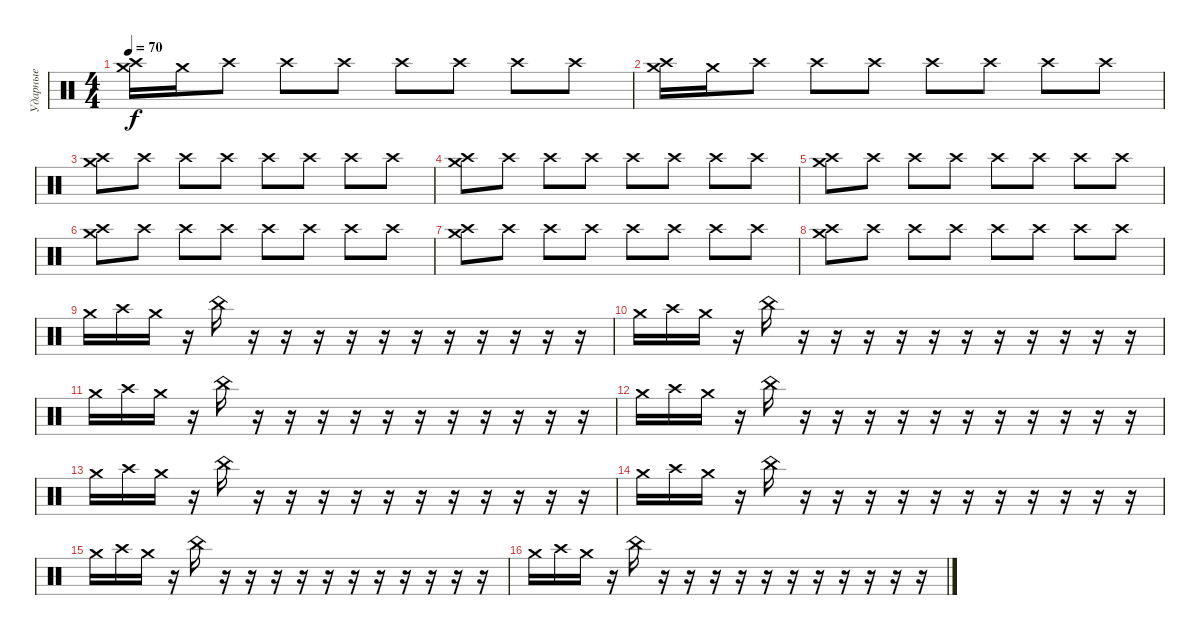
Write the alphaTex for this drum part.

\track ("Ударные" "Ударные") {instrument percussion}
\staff {score}
\articulation defaults
\ts (4 4)
\tempo 70
\clef neutral
\ks c
("Crash medium (hit)" "Crash high (hit)").16{dy f} "Crash medium (hit)".16 "Crash high (hit)".8 "Crash high (hit)".8 "Crash high (hit)".8 "Crash high (hit)".8 "Crash high (hit)".8 "Crash high (hit)".8 "Crash high (hit)".8 |
("Crash medium (hit)" "Crash high (hit)").16 "Crash medium (hit)".16 "Crash high (hit)".8 "Crash high (hit)".8 "Crash high (hit)".8 "Crash high (hit)".8 "Crash high (hit)".8 "Crash high (hit)".8 "Crash high (hit)".8 |
("Crash high (hit)" "Crash medium (hit)").8 "Crash high (hit)".8 "Crash high (hit)".8 "Crash high (hit)".8 "Crash high (hit)".8 "Crash high (hit)".8 "Crash high (hit)".8 "Crash high (hit)".8 |
("Crash high (hit)" "Crash medium (hit)").8 "Crash high (hit)".8 "Crash high (hit)".8 "Crash high (hit)".8 "Crash high (hit)".8 "Crash high (hit)".8 "Crash high (hit)".8 "Crash high (hit)".8 |
("Crash high (hit)" "Crash medium (hit)").8 "Crash high (hit)".8 "Crash high (hit)".8 "Crash high (hit)".8 "Crash high (hit)".8 "Crash high (hit)".8 "Crash high (hit)".8 "Crash high (hit)".8 |
("Crash high (hit)" "Crash medium (hit)").8 "Crash high (hit)".8 "Crash high (hit)".8 "Crash high (hit)".8 "Crash high (hit)".8 "Crash high (hit)".8 "Crash high (hit)".8 "Crash high (hit)".8 |
("Crash high (hit)" "Crash medium (hit)").8 "Crash high (hit)".8 "Crash high (hit)".8 "Crash high (hit)".8 "Crash high (hit)".8 "Crash high (hit)".8 "Crash high (hit)".8 "Crash high (hit)".8 |
("Crash high (hit)" "Crash medium (hit)").8 "Crash high (hit)".8 "Crash high (hit)".8 "Crash high (hit)".8 "Crash high (hit)".8 "Crash high (hit)".8 "Crash high (hit)".8 "Crash high (hit)".8 |
"Crash medium (hit)".16 "Crash high (hit)".16 "Crash medium (hit)".16 r.16 "China (hit)".16 r.16 r.16 r.16 r.16 r.16 r.16 r.16 r.16 r.16 r.16 r.16 |
"Crash medium (hit)".16 "Crash high (hit)".16 "Crash medium (hit)".16 r.16 "China (hit)".16 r.16 r.16 r.16 r.16 r.16 r.16 r.16 r.16 r.16 r.16 r.16 |
"Crash medium (hit)".16 "Crash high (hit)".16 "Crash medium (hit)".16 r.16 "China (hit)".16 r.16 r.16 r.16 r.16 r.16 r.16 r.16 r.16 r.16 r.16 r.16 |
"Crash medium (hit)".16 "Crash high (hit)".16 "Crash medium (hit)".16 r.16 "China (hit)".16 r.16 r.16 r.16 r.16 r.16 r.16 r.16 r.16 r.16 r.16 r.16 |
"Crash medium (hit)".16 "Crash high (hit)".16 "Crash medium (hit)".16 r.16 "China (hit)".16 r.16 r.16 r.16 r.16 r.16 r.16 r.16 r.16 r.16 r.16 r.16 |
"Crash medium (hit)".16 "Crash high (hit)".16 "Crash medium (hit)".16 r.16 "China (hit)".16 r.16 r.16 r.16 r.16 r.16 r.16 r.16 r.16 r.16 r.16 r.16 |
"Crash medium (hit)".16 "Crash high (hit)".16 "Crash medium (hit)".16 r.16 "China (hit)".16 r.16 r.16 r.16 r.16 r.16 r.16 r.16 r.16 r.16 r.16 r.16 |
"Crash medium (hit)".16 "Crash high (hit)".16 "Crash medium (hit)".16 r.16 "China (hit)".16 r.16 r.16 r.16 r.16 r.16 r.16 r.16 r.16 r.16 r.16 r.16
